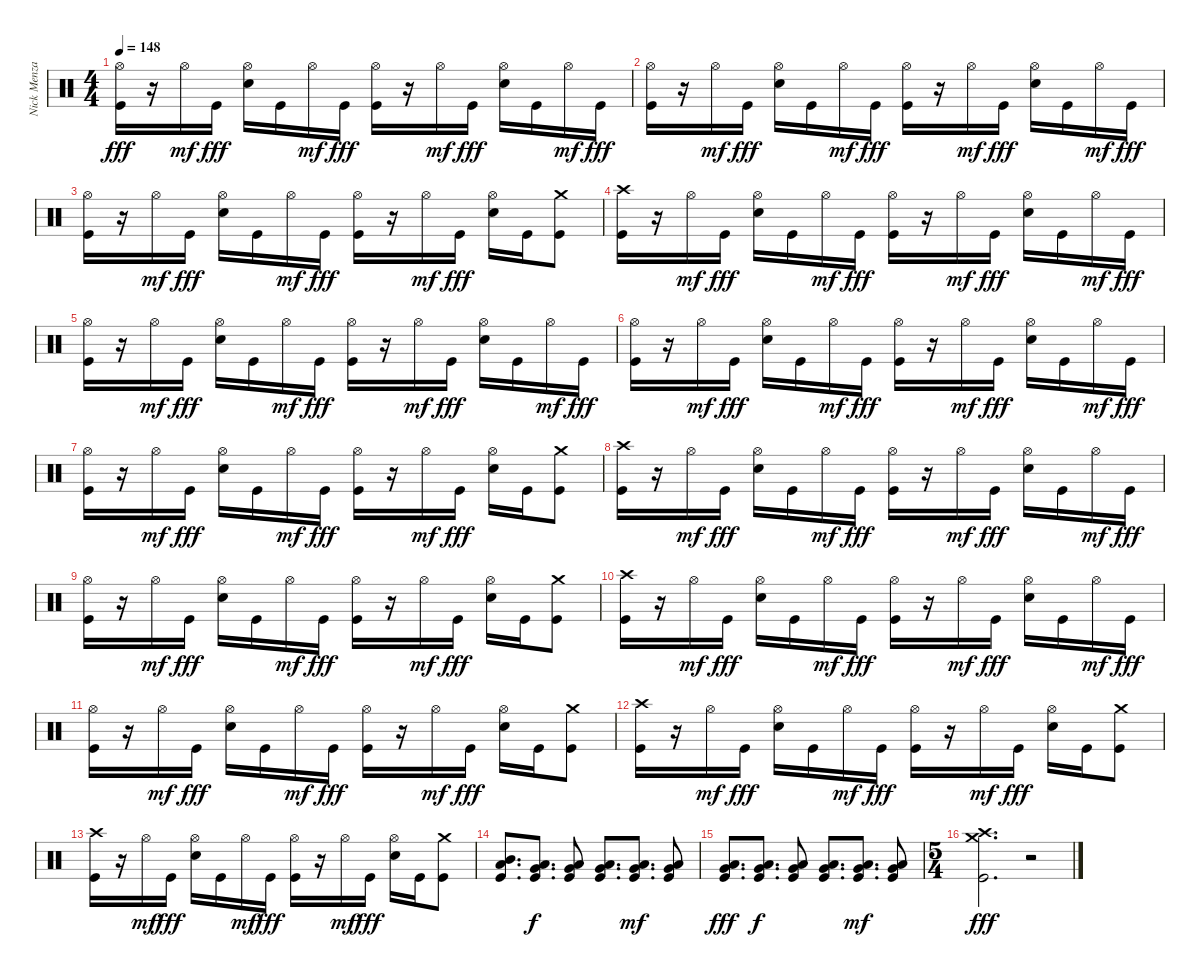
\track ("Nick Menza" "Nick Menza") {instrument percussion}
\staff {score}
\articulation defaults
\ts (4 4)
\tempo 148
\clef neutral
\ks c
("Kick (hit)" "Hi-Hat (open)").16{dy fff} r.16 "Hi-Hat (open)".16{dy mf} "Kick (hit)".16{dy fff} ("Snare (hit) 2" "Hi-Hat (open)").16 "Kick (hit)".16 "Hi-Hat (open)".16{dy mf} "Kick (hit)".16{dy fff} ("Kick (hit)" "Hi-Hat (open)").16 r.16 "Hi-Hat (open)".16{dy mf} "Kick (hit)".16{dy fff} ("Snare (hit) 2" "Hi-Hat (open)").16 "Kick (hit)".16 "Hi-Hat (open)".16{dy mf} "Kick (hit)".16{dy fff} |
("Kick (hit)" "Hi-Hat (open)").16 r.16 "Hi-Hat (open)".16{dy mf} "Kick (hit)".16{dy fff} ("Snare (hit) 2" "Hi-Hat (open)").16 "Kick (hit)".16 "Hi-Hat (open)".16{dy mf} "Kick (hit)".16{dy fff} ("Kick (hit)" "Hi-Hat (open)").16 r.16 "Hi-Hat (open)".16{dy mf} "Kick (hit)".16{dy fff} ("Snare (hit) 2" "Hi-Hat (open)").16 "Kick (hit)".16 "Hi-Hat (open)".16{dy mf} "Kick (hit)".16{dy fff} |
("Kick (hit)" "Hi-Hat (open)").16 r.16 "Hi-Hat (open)".16{dy mf} "Kick (hit)".16{dy fff} ("Snare (hit) 2" "Hi-Hat (open)").16 "Kick (hit)".16 "Hi-Hat (open)".16{dy mf} "Kick (hit)".16{dy fff} ("Kick (hit)" "Hi-Hat (open)").16 r.16 "Hi-Hat (open)".16{dy mf} "Kick (hit)".16{dy fff} ("Snare (hit) 2" "Hi-Hat (open)").16 "Kick (hit)".16 ("Kick (hit)" "Crash medium (hit)").8 |
("Kick (hit)" "Crash high (hit)").16 r.16 "Hi-Hat (open)".16{dy mf} "Kick (hit)".16{dy fff} ("Snare (hit) 2" "Hi-Hat (open)").16 "Kick (hit)".16 "Hi-Hat (open)".16{dy mf} "Kick (hit)".16{dy fff} ("Kick (hit)" "Hi-Hat (open)").16 r.16 "Hi-Hat (open)".16{dy mf} "Kick (hit)".16{dy fff} ("Snare (hit) 2" "Hi-Hat (open)").16 "Kick (hit)".16 "Hi-Hat (open)".16{dy mf} "Kick (hit)".16{dy fff} |
("Kick (hit)" "Hi-Hat (open)").16 r.16 "Hi-Hat (open)".16{dy mf} "Kick (hit)".16{dy fff} ("Snare (hit) 2" "Hi-Hat (open)").16 "Kick (hit)".16 "Hi-Hat (open)".16{dy mf} "Kick (hit)".16{dy fff} ("Kick (hit)" "Hi-Hat (open)").16 r.16 "Hi-Hat (open)".16{dy mf} "Kick (hit)".16{dy fff} ("Snare (hit) 2" "Hi-Hat (open)").16 "Kick (hit)".16 "Hi-Hat (open)".16{dy mf} "Kick (hit)".16{dy fff} |
("Kick (hit)" "Hi-Hat (open)").16 r.16 "Hi-Hat (open)".16{dy mf} "Kick (hit)".16{dy fff} ("Snare (hit) 2" "Hi-Hat (open)").16 "Kick (hit)".16 "Hi-Hat (open)".16{dy mf} "Kick (hit)".16{dy fff} ("Kick (hit)" "Hi-Hat (open)").16 r.16 "Hi-Hat (open)".16{dy mf} "Kick (hit)".16{dy fff} ("Snare (hit) 2" "Hi-Hat (open)").16 "Kick (hit)".16 "Hi-Hat (open)".16{dy mf} "Kick (hit)".16{dy fff} |
("Kick (hit)" "Hi-Hat (open)").16 r.16 "Hi-Hat (open)".16{dy mf} "Kick (hit)".16{dy fff} ("Snare (hit) 2" "Hi-Hat (open)").16 "Kick (hit)".16 "Hi-Hat (open)".16{dy mf} "Kick (hit)".16{dy fff} ("Kick (hit)" "Hi-Hat (open)").16 r.16 "Hi-Hat (open)".16{dy mf} "Kick (hit)".16{dy fff} ("Snare (hit) 2" "Hi-Hat (open)").16 "Kick (hit)".16 ("Kick (hit)" "Crash medium (hit)").8 |
("Kick (hit)" "Crash high (hit)").16 r.16 "Hi-Hat (open)".16{dy mf} "Kick (hit)".16{dy fff} ("Snare (hit) 2" "Hi-Hat (open)").16 "Kick (hit)".16 "Hi-Hat (open)".16{dy mf} "Kick (hit)".16{dy fff} ("Kick (hit)" "Hi-Hat (open)").16 r.16 "Hi-Hat (open)".16{dy mf} "Kick (hit)".16{dy fff} ("Snare (hit) 2" "Hi-Hat (open)").16 "Kick (hit)".16 "Hi-Hat (open)".16{dy mf} "Kick (hit)".16{dy fff} |
("Kick (hit)" "Hi-Hat (open)").16 r.16 "Hi-Hat (open)".16{dy mf} "Kick (hit)".16{dy fff} ("Snare (hit) 2" "Hi-Hat (open)").16 "Kick (hit)".16 "Hi-Hat (open)".16{dy mf} "Kick (hit)".16{dy fff} ("Kick (hit)" "Hi-Hat (open)").16 r.16 "Hi-Hat (open)".16{dy mf} "Kick (hit)".16{dy fff} ("Snare (hit) 2" "Hi-Hat (open)").16 "Kick (hit)".16 ("Kick (hit)" "Crash medium (hit)").8 |
("Kick (hit)" "Crash high (hit)").16 r.16 "Hi-Hat (open)".16{dy mf} "Kick (hit)".16{dy fff} ("Snare (hit) 2" "Hi-Hat (open)").16 "Kick (hit)".16 "Hi-Hat (open)".16{dy mf} "Kick (hit)".16{dy fff} ("Kick (hit)" "Hi-Hat (open)").16 r.16 "Hi-Hat (open)".16{dy mf} "Kick (hit)".16{dy fff} ("Snare (hit) 2" "Hi-Hat (open)").16 "Kick (hit)".16 "Hi-Hat (open)".16{dy mf} "Kick (hit)".16{dy fff} |
("Kick (hit)" "Hi-Hat (open)").16 r.16 "Hi-Hat (open)".16{dy mf} "Kick (hit)".16{dy fff} ("Snare (hit) 2" "Hi-Hat (open)").16 "Kick (hit)".16 "Hi-Hat (open)".16{dy mf} "Kick (hit)".16{dy fff} ("Kick (hit)" "Hi-Hat (open)").16 r.16 "Hi-Hat (open)".16{dy mf} "Kick (hit)".16{dy fff} ("Snare (hit) 2" "Hi-Hat (open)").16 "Kick (hit)".16 ("Kick (hit)" "Crash medium (hit)").8 |
("Kick (hit)" "Crash high (hit)").16 r.16 "Hi-Hat (open)".16{dy mf} "Kick (hit)".16{dy fff} ("Snare (hit) 2" "Hi-Hat (open)").16 "Kick (hit)".16 "Hi-Hat (open)".16{dy mf} "Kick (hit)".16{dy fff} ("Kick (hit)" "Hi-Hat (open)").16 r.16 "Hi-Hat (open)".16{dy mf} "Kick (hit)".16{dy fff} ("Snare (hit) 2" "Hi-Hat (open)").16 "Kick (hit)".16 ("Kick (hit)" "Crash medium (hit)").8 |
("Kick (hit)" "Crash high (hit)").16 r.16 "Hi-Hat (open)".16{dy mf} "Kick (hit)".16{dy fff} ("Snare (hit) 2" "Hi-Hat (open)").16 "Kick (hit)".16 "Hi-Hat (open)".16{dy mf} "Kick (hit)".16{dy fff} ("Kick (hit)" "Hi-Hat (open)").16 r.16 "Hi-Hat (open)".16{dy mf} "Kick (hit)".16{dy fff} ("Snare (hit) 2" "Hi-Hat (open)").16 "Kick (hit)".16 ("Kick (hit)" "Crash medium (hit)").8 |
("Kick (hit)" "Mid Tom (hit)" "Low Tom (hit)").8{d} ("Kick (hit)" "Low Tom (hit)" "Very Low Tom (hit)").8{d dy f} ("Kick (hit)" "Very Low Tom (hit)" "Low Floor Tom (hit)").8 ("Kick (hit)" "Low Tom (hit)" "Very Low Tom (hit)").8{d} ("Kick (hit)" "Very Low Tom (hit)" "Low Floor Tom (hit)").8{d dy mf} ("Kick (hit)" "Very Low Tom (hit)" "Low Floor Tom (hit)").8 |
("Kick (hit)" "Very Low Tom (hit)" "Low Floor Tom (hit)").8{d dy fff} ("Kick (hit)" "Very Low Tom (hit)" "Low Floor Tom (hit)").8{d dy f} ("Kick (hit)" "Very Low Tom (hit)" "Low Floor Tom (hit)").8 ("Kick (hit)" "Very Low Tom (hit)" "Low Floor Tom (hit)").8{d} ("Kick (hit)" "Very Low Tom (hit)" "Low Floor Tom (hit)").8{d dy mf} ("Kick (hit)" "Very Low Tom (hit)" "Low Floor Tom (hit)").8 |
\ts (5 4)
("Kick (hit)" "Crash high (hit)" "Crash medium (hit)").2{d dy fff} r.2
